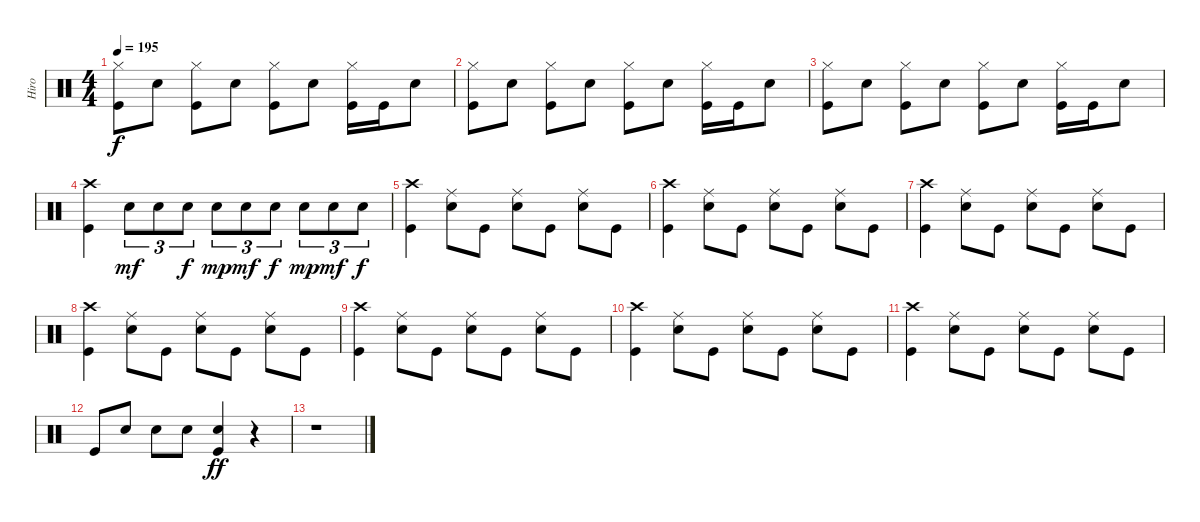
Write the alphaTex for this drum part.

\track ("Hiro" "Hiro") {instrument percussion}
\staff {score}
\articulation defaults
\ts (4 4)
\tempo 195
\clef neutral
\ks c
("Kick (hit)" "Hi-Hat (closed)").8{dy f} "Snare (hit) 2".8 ("Kick (hit)" "Hi-Hat (closed)").8 "Snare (hit) 2".8 ("Kick (hit)" "Hi-Hat (closed)").8 "Snare (hit) 2".8 ("Kick (hit)" "Hi-Hat (closed)").16 "Kick (hit)".16 "Snare (hit) 2".8 |
("Kick (hit)" "Hi-Hat (closed)").8 "Snare (hit) 2".8 ("Kick (hit)" "Hi-Hat (closed)").8 "Snare (hit) 2".8 ("Kick (hit)" "Hi-Hat (closed)").8 "Snare (hit) 2".8 ("Kick (hit)" "Hi-Hat (closed)").16 "Kick (hit)".16 "Snare (hit) 2".8 |
("Kick (hit)" "Hi-Hat (closed)").8 "Snare (hit) 2".8 ("Kick (hit)" "Hi-Hat (closed)").8 "Snare (hit) 2".8 ("Kick (hit)" "Hi-Hat (closed)").8 "Snare (hit) 2".8 ("Kick (hit)" "Hi-Hat (closed)").16 "Kick (hit)".16 "Snare (hit) 2".8 |
("Crash high (hit)" "Kick (hit)").4 "Snare (hit) 2".8{tu (3 2) dy mf} "Snare (hit) 2".8{tu (3 2)} "Snare (hit) 2".8{tu (3 2) dy f} "Snare (hit) 2".8{tu (3 2) dy mp} "Snare (hit) 2".8{tu (3 2) dy mf} "Snare (hit) 2".8{tu (3 2) dy f} "Snare (hit) 2".8{tu (3 2) dy mp} "Snare (hit) 2".8{tu (3 2) dy mf} "Snare (hit) 2".8{tu (3 2) dy f} |
("Crash high (hit)" "Kick (hit)").4 ("Snare (hit) 2" "Ride (middle)").8 "Kick (hit)".8 ("Snare (hit) 2" "Ride (middle)").8 "Kick (hit)".8 ("Snare (hit) 2" "Ride (middle)").8 "Kick (hit)".8 |
("Kick (hit)" "Crash high (hit)").4 ("Ride (middle)" "Snare (hit) 2").8 "Kick (hit)".8 ("Ride (middle)" "Snare (hit) 2").8 "Kick (hit)".8 ("Ride (middle)" "Snare (hit) 2").8 "Kick (hit)".8 |
("Kick (hit)" "Crash high (hit)").4 ("Ride (middle)" "Snare (hit) 2").8 "Kick (hit)".8 ("Ride (middle)" "Snare (hit) 2").8 "Kick (hit)".8 ("Ride (middle)" "Snare (hit) 2").8 "Kick (hit)".8 |
("Crash high (hit)" "Kick (hit)").4 ("Snare (hit) 2" "Ride (middle)").8 "Kick (hit)".8 ("Snare (hit) 2" "Ride (middle)").8 "Kick (hit)".8 ("Snare (hit) 2" "Ride (middle)").8 "Kick (hit)".8 |
("Kick (hit)" "Crash high (hit)").4 ("Ride (middle)" "Snare (hit) 2").8 "Kick (hit)".8 ("Ride (middle)" "Snare (hit) 2").8 "Kick (hit)".8 ("Ride (middle)" "Snare (hit) 2").8 "Kick (hit)".8 |
("Crash high (hit)" "Kick (hit)").4 ("Snare (hit) 2" "Ride (middle)").8 "Kick (hit)".8 ("Snare (hit) 2" "Ride (middle)").8 "Kick (hit)".8 ("Snare (hit) 2" "Ride (middle)").8 "Kick (hit)".8 |
("Kick (hit)" "Crash high (hit)").4 ("Ride (middle)" "Snare (hit) 2").8 "Kick (hit)".8 ("Ride (middle)" "Snare (hit) 2").8 "Kick (hit)".8 ("Ride (middle)" "Snare (hit) 2").8 "Kick (hit)".8 |
"Kick (hit)".8 "Snare (hit) 2".8 "Snare (hit) 2".8 "Snare (hit) 2".8 ("Snare (hit) 2" "Kick (hit)").4{dy ff} r.4 |
r.1
